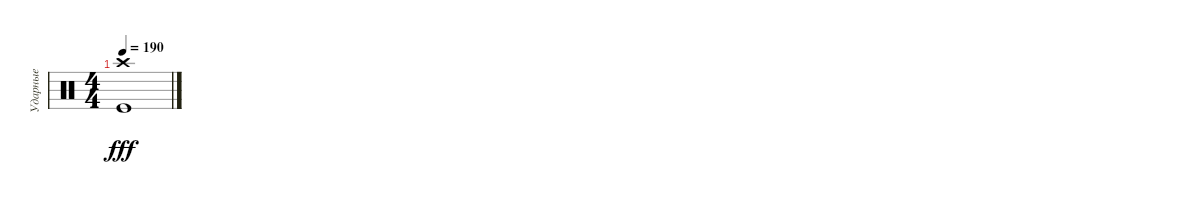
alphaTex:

\track ("Ударные" "Ударные") {instrument percussion}
\staff {score}
\articulation defaults
\ts (4 4)
\tempo 190
\clef neutral
\ks c
("Crash high (hit)" "Kick (hit)").1{dy fff}
